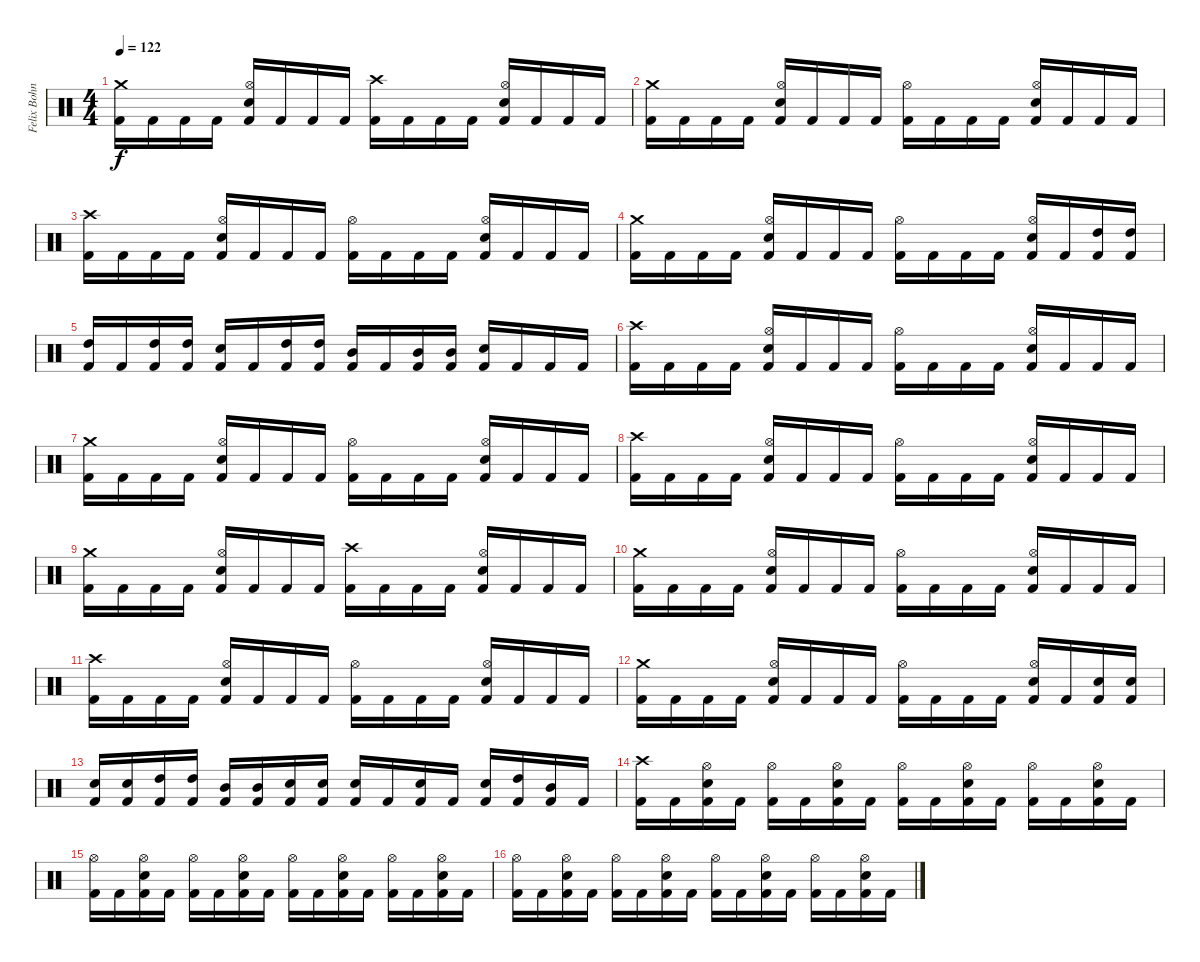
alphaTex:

\track ("Felix Bohnke" "Felix Bohn") {instrument percussion}
\staff {score}
\articulation defaults
\ts (4 4)
\tempo 122
\clef neutral
\ks c
("Crash medium (hit)" "Kick (hit) 2").16{dy f} "Kick (hit) 2".16 "Kick (hit) 2".16 "Kick (hit) 2".16 ("Hi-Hat (open)" "Snare (hit) 2" "Kick (hit) 2").16 "Kick (hit) 2".16 "Kick (hit) 2".16 "Kick (hit) 2".16 ("Crash high (hit)" "Kick (hit) 2").16 "Kick (hit) 2".16 "Kick (hit) 2".16 "Kick (hit) 2".16 ("Hi-Hat (open)" "Snare (hit) 2" "Kick (hit) 2").16 "Kick (hit) 2".16 "Kick (hit) 2".16 "Kick (hit) 2".16 |
("Crash medium (hit)" "Kick (hit) 2").16 "Kick (hit) 2".16 "Kick (hit) 2".16 "Kick (hit) 2".16 ("Hi-Hat (open)" "Snare (hit) 2" "Kick (hit) 2").16 "Kick (hit) 2".16 "Kick (hit) 2".16 "Kick (hit) 2".16 ("Hi-Hat (open)" "Kick (hit) 2").16 "Kick (hit) 2".16 "Kick (hit) 2".16 "Kick (hit) 2".16 ("Hi-Hat (open)" "Snare (hit) 2" "Kick (hit) 2").16 "Kick (hit) 2".16 "Kick (hit) 2".16 "Kick (hit) 2".16 |
("Crash high (hit)" "Kick (hit) 2").16 "Kick (hit) 2".16 "Kick (hit) 2".16 "Kick (hit) 2".16 ("Hi-Hat (open)" "Snare (hit) 2" "Kick (hit) 2").16 "Kick (hit) 2".16 "Kick (hit) 2".16 "Kick (hit) 2".16 ("Hi-Hat (open)" "Kick (hit) 2").16 "Kick (hit) 2".16 "Kick (hit) 2".16 "Kick (hit) 2".16 ("Hi-Hat (open)" "Snare (hit) 2" "Kick (hit) 2").16 "Kick (hit) 2".16 "Kick (hit) 2".16 "Kick (hit) 2".16 |
("Crash medium (hit)" "Kick (hit) 2").16 "Kick (hit) 2".16 "Kick (hit) 2".16 "Kick (hit) 2".16 ("Hi-Hat (open)" "Snare (hit) 2" "Kick (hit) 2").16 "Kick (hit) 2".16 "Kick (hit) 2".16 "Kick (hit) 2".16 ("Hi-Hat (open)" "Kick (hit) 2").16 "Kick (hit) 2".16 "Kick (hit) 2".16 "Kick (hit) 2".16 ("Hi-Hat (open)" "Snare (hit) 2" "Kick (hit) 2").16 "Kick (hit) 2".16 ("High Tom (hit)" "Kick (hit) 2").16 ("High Tom (hit)" "Kick (hit) 2").16 |
("High Tom (hit)" "Kick (hit) 2").16 "Kick (hit) 2".16 ("High Tom (hit)" "Kick (hit) 2").16 ("High Tom (hit)" "Kick (hit) 2").16 ("Snare (hit) 2" "Kick (hit) 2").16 "Kick (hit) 2".16 ("High Tom (hit)" "Kick (hit) 2").16 ("High Tom (hit)" "Kick (hit) 2").16 ("Mid Tom (hit)" "Kick (hit) 2").16 "Kick (hit) 2".16 ("Mid Tom (hit)" "Kick (hit) 2").16 ("Mid Tom (hit)" "Kick (hit) 2").16 ("Snare (hit) 2" "Kick (hit) 2").16 "Kick (hit) 2".16 "Kick (hit) 2".16 "Kick (hit) 2".16 |
("Crash high (hit)" "Kick (hit) 2").16 "Kick (hit) 2".16 "Kick (hit) 2".16 "Kick (hit) 2".16 ("Hi-Hat (open)" "Snare (hit) 2" "Kick (hit) 2").16 "Kick (hit) 2".16 "Kick (hit) 2".16 "Kick (hit) 2".16 ("Hi-Hat (open)" "Kick (hit) 2").16 "Kick (hit) 2".16 "Kick (hit) 2".16 "Kick (hit) 2".16 ("Hi-Hat (open)" "Snare (hit) 2" "Kick (hit) 2").16 "Kick (hit) 2".16 "Kick (hit) 2".16 "Kick (hit) 2".16 |
("Crash medium (hit)" "Kick (hit) 2").16 "Kick (hit) 2".16 "Kick (hit) 2".16 "Kick (hit) 2".16 ("Hi-Hat (open)" "Snare (hit) 2" "Kick (hit) 2").16 "Kick (hit) 2".16 "Kick (hit) 2".16 "Kick (hit) 2".16 ("Hi-Hat (open)" "Kick (hit) 2").16 "Kick (hit) 2".16 "Kick (hit) 2".16 "Kick (hit) 2".16 ("Hi-Hat (open)" "Snare (hit) 2" "Kick (hit) 2").16 "Kick (hit) 2".16 "Kick (hit) 2".16 "Kick (hit) 2".16 |
("Crash high (hit)" "Kick (hit) 2").16 "Kick (hit) 2".16 "Kick (hit) 2".16 "Kick (hit) 2".16 ("Hi-Hat (open)" "Snare (hit) 2" "Kick (hit) 2").16 "Kick (hit) 2".16 "Kick (hit) 2".16 "Kick (hit) 2".16 ("Hi-Hat (open)" "Kick (hit) 2").16 "Kick (hit) 2".16 "Kick (hit) 2".16 "Kick (hit) 2".16 ("Hi-Hat (open)" "Snare (hit) 2" "Kick (hit) 2").16 "Kick (hit) 2".16 "Kick (hit) 2".16 "Kick (hit) 2".16 |
("Crash medium (hit)" "Kick (hit) 2").16 "Kick (hit) 2".16 "Kick (hit) 2".16 "Kick (hit) 2".16 ("Hi-Hat (open)" "Snare (hit) 2" "Kick (hit) 2").16 "Kick (hit) 2".16 "Kick (hit) 2".16 "Kick (hit) 2".16 ("Crash high (hit)" "Kick (hit) 2").16 "Kick (hit) 2".16 "Kick (hit) 2".16 "Kick (hit) 2".16 ("Hi-Hat (open)" "Snare (hit) 2" "Kick (hit) 2").16 "Kick (hit) 2".16 "Kick (hit) 2".16 "Kick (hit) 2".16 |
("Crash medium (hit)" "Kick (hit) 2").16 "Kick (hit) 2".16 "Kick (hit) 2".16 "Kick (hit) 2".16 ("Hi-Hat (open)" "Snare (hit) 2" "Kick (hit) 2").16 "Kick (hit) 2".16 "Kick (hit) 2".16 "Kick (hit) 2".16 ("Hi-Hat (open)" "Kick (hit) 2").16 "Kick (hit) 2".16 "Kick (hit) 2".16 "Kick (hit) 2".16 ("Hi-Hat (open)" "Snare (hit) 2" "Kick (hit) 2").16 "Kick (hit) 2".16 "Kick (hit) 2".16 "Kick (hit) 2".16 |
("Crash high (hit)" "Kick (hit) 2").16 "Kick (hit) 2".16 "Kick (hit) 2".16 "Kick (hit) 2".16 ("Hi-Hat (open)" "Snare (hit) 2" "Kick (hit) 2").16 "Kick (hit) 2".16 "Kick (hit) 2".16 "Kick (hit) 2".16 ("Hi-Hat (open)" "Kick (hit) 2").16 "Kick (hit) 2".16 "Kick (hit) 2".16 "Kick (hit) 2".16 ("Hi-Hat (open)" "Snare (hit) 2" "Kick (hit) 2").16 "Kick (hit) 2".16 "Kick (hit) 2".16 "Kick (hit) 2".16 |
("Crash medium (hit)" "Kick (hit) 2").16 "Kick (hit) 2".16 "Kick (hit) 2".16 "Kick (hit) 2".16 ("Hi-Hat (open)" "Snare (hit) 2" "Kick (hit) 2").16 "Kick (hit) 2".16 "Kick (hit) 2".16 "Kick (hit) 2".16 ("Hi-Hat (open)" "Kick (hit) 2").16 "Kick (hit) 2".16 "Kick (hit) 2".16 "Kick (hit) 2".16 ("Hi-Hat (open)" "Snare (hit) 2" "Kick (hit) 2").16 "Kick (hit) 2".16 ("Snare (hit) 2" "Kick (hit) 2").16 ("Snare (hit) 2" "Kick (hit) 2").16 |
("Snare (hit) 2" "Kick (hit) 2").16 ("Snare (hit) 2" "Kick (hit) 2").16 ("High Tom (hit)" "Kick (hit) 2").16 ("High Tom (hit)" "Kick (hit) 2").16 ("Mid Tom (hit)" "Kick (hit) 2").16 ("Mid Tom (hit)" "Kick (hit) 2").16 ("Snare (hit) 2" "Kick (hit) 2").16 ("Snare (hit) 2" "Kick (hit) 2").16 ("Snare (hit) 2" "Kick (hit) 2").16 "Kick (hit) 2".16 ("Snare (hit) 2" "Kick (hit) 2").16 "Kick (hit) 2".16 ("Snare (hit) 2" "Kick (hit) 2").16 ("High Tom (hit)" "Kick (hit) 2").16 ("Mid Tom (hit)" "Kick (hit) 2").16 "Kick (hit) 2".16 |
("Crash high (hit)" "Kick (hit) 2").16 "Kick (hit) 2".16 ("Hi-Hat (open)" "Snare (hit) 2" "Kick (hit) 2").16 "Kick (hit) 2".16 ("Hi-Hat (open)" "Kick (hit) 2").16 "Kick (hit) 2".16 ("Hi-Hat (open)" "Snare (hit) 2" "Kick (hit) 2").16 "Kick (hit) 2".16 ("Hi-Hat (open)" "Kick (hit) 2").16 "Kick (hit) 2".16 ("Hi-Hat (open)" "Snare (hit) 2" "Kick (hit) 2").16 "Kick (hit) 2".16 ("Hi-Hat (open)" "Kick (hit) 2").16 "Kick (hit) 2".16 ("Hi-Hat (open)" "Snare (hit) 2" "Kick (hit) 2").16 "Kick (hit) 2".16 |
("Hi-Hat (open)" "Kick (hit) 2").16 "Kick (hit) 2".16 ("Hi-Hat (open)" "Snare (hit) 2" "Kick (hit) 2").16 "Kick (hit) 2".16 ("Hi-Hat (open)" "Kick (hit) 2").16 "Kick (hit) 2".16 ("Hi-Hat (open)" "Snare (hit) 2" "Kick (hit) 2").16 "Kick (hit) 2".16 ("Hi-Hat (open)" "Kick (hit) 2").16 "Kick (hit) 2".16 ("Hi-Hat (open)" "Snare (hit) 2" "Kick (hit) 2").16 "Kick (hit) 2".16 ("Hi-Hat (open)" "Kick (hit) 2").16 "Kick (hit) 2".16 ("Hi-Hat (open)" "Snare (hit) 2" "Kick (hit) 2").16 "Kick (hit) 2".16 |
("Hi-Hat (open)" "Kick (hit) 2").16 "Kick (hit) 2".16 ("Hi-Hat (open)" "Snare (hit) 2" "Kick (hit) 2").16 "Kick (hit) 2".16 ("Hi-Hat (open)" "Kick (hit) 2").16 "Kick (hit) 2".16 ("Hi-Hat (open)" "Snare (hit) 2" "Kick (hit) 2").16 "Kick (hit) 2".16 ("Hi-Hat (open)" "Kick (hit) 2").16 "Kick (hit) 2".16 ("Hi-Hat (open)" "Snare (hit) 2" "Kick (hit) 2").16 "Kick (hit) 2".16 ("Hi-Hat (open)" "Kick (hit) 2").16 "Kick (hit) 2".16 ("Hi-Hat (open)" "Snare (hit) 2" "Kick (hit) 2").16 "Kick (hit) 2".16
